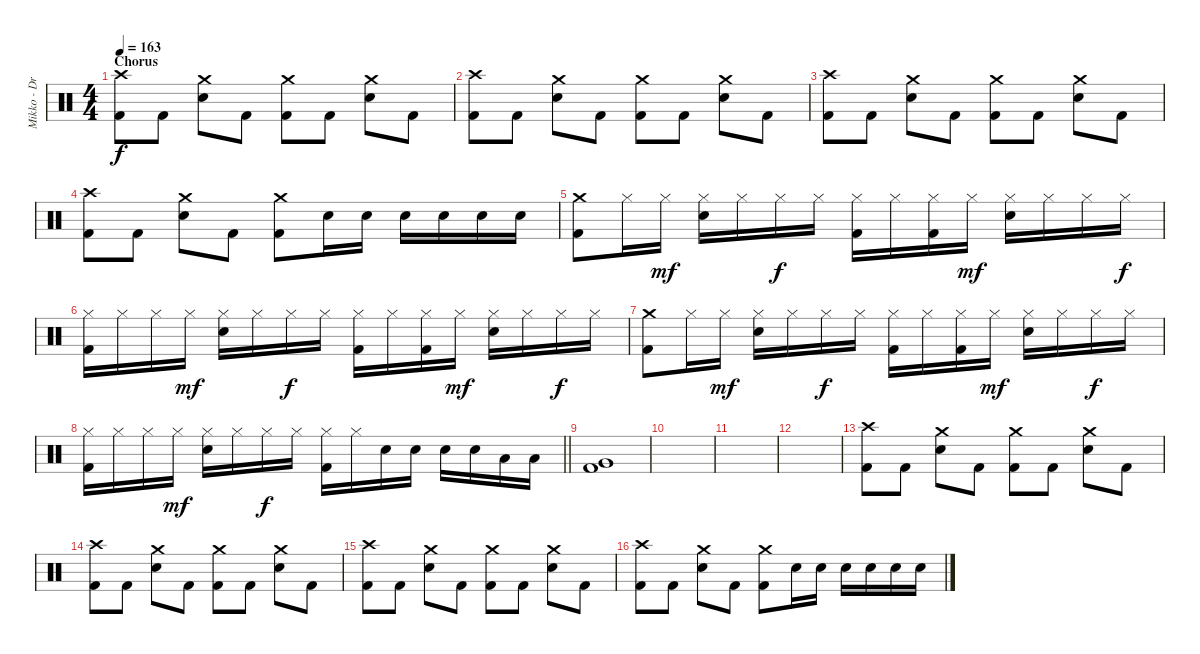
\track ("Mikko - Drums" "Mikko - Dr") {instrument percussion}
\staff {score}
\articulation defaults
\ts (4 4)
\section ("" "Chorus")
\tempo 163
\clef neutral
\ks c
("Crash high (hit)" "Kick (hit) 2").8{dy f} "Kick (hit) 2".8 ("Crash medium (hit)" "Snare (hit) 2").8 "Kick (hit) 2".8 ("Crash medium (hit)" "Kick (hit) 2").8 "Kick (hit) 2".8 ("Crash medium (hit)" "Snare (hit) 2").8 "Kick (hit) 2".8 |
("Crash high (hit)" "Kick (hit) 2").8 "Kick (hit) 2".8 ("Crash medium (hit)" "Snare (hit) 2").8 "Kick (hit) 2".8 ("Crash medium (hit)" "Kick (hit) 2").8 "Kick (hit) 2".8 ("Crash medium (hit)" "Snare (hit) 2").8 "Kick (hit) 2".8 |
("Crash high (hit)" "Kick (hit) 2").8 "Kick (hit) 2".8 ("Crash medium (hit)" "Snare (hit) 2").8 "Kick (hit) 2".8 ("Crash medium (hit)" "Kick (hit) 2").8 "Kick (hit) 2".8 ("Crash medium (hit)" "Snare (hit) 2").8 "Kick (hit) 2".8 |
("Crash high (hit)" "Kick (hit) 2").8 "Kick (hit) 2".8 ("Crash medium (hit)" "Snare (hit) 2").8 "Kick (hit) 2".8 ("Crash medium (hit)" "Kick (hit) 2").8 "Snare (hit) 2".16 "Snare (hit) 2".16 "Snare (hit) 2".16 "Snare (hit) 2".16 "Snare (hit) 2".16 "Snare (hit) 2".16 |
("Crash medium (hit)" "Kick (hit) 2").8 "Hi-Hat (closed)".16 "Hi-Hat (closed)".16{dy mf} ("Hi-Hat (closed)" "Snare (hit) 2").16 "Hi-Hat (closed)".16 "Hi-Hat (closed)".16{dy f} "Hi-Hat (closed)".16 ("Hi-Hat (closed)" "Kick (hit) 2").16 "Hi-Hat (closed)".16 ("Hi-Hat (closed)" "Kick (hit) 2").16 "Hi-Hat (closed)".16{dy mf} ("Hi-Hat (closed)" "Snare (hit) 2").16 "Hi-Hat (closed)".16 "Hi-Hat (closed)".16 "Hi-Hat (closed)".16{dy f} |
("Hi-Hat (closed)" "Kick (hit) 2").16 "Hi-Hat (closed)".16 "Hi-Hat (closed)".16 "Hi-Hat (closed)".16{dy mf} ("Hi-Hat (closed)" "Snare (hit) 2").16 "Hi-Hat (closed)".16 "Hi-Hat (closed)".16{dy f} "Hi-Hat (closed)".16 ("Hi-Hat (closed)" "Kick (hit) 2").16 "Hi-Hat (closed)".16 ("Hi-Hat (closed)" "Kick (hit) 2").16 "Hi-Hat (closed)".16{dy mf} ("Hi-Hat (closed)" "Snare (hit) 2").16 "Hi-Hat (closed)".16 "Hi-Hat (closed)".16{dy f} "Hi-Hat (closed)".16 |
("Crash medium (hit)" "Kick (hit) 2").8 "Hi-Hat (closed)".16 "Hi-Hat (closed)".16{dy mf} ("Hi-Hat (closed)" "Snare (hit) 2").16 "Hi-Hat (closed)".16 "Hi-Hat (closed)".16{dy f} "Hi-Hat (closed)".16 ("Hi-Hat (closed)" "Kick (hit) 2").16 "Hi-Hat (closed)".16 ("Hi-Hat (closed)" "Kick (hit) 2").16 "Hi-Hat (closed)".16{dy mf} ("Hi-Hat (closed)" "Snare (hit) 2").16 "Hi-Hat (closed)".16 "Hi-Hat (closed)".16{dy f} "Hi-Hat (closed)".16 |
\barLineRight lightlight
("Hi-Hat (closed)" "Kick (hit) 2").16 "Hi-Hat (closed)".16 "Hi-Hat (closed)".16 "Hi-Hat (closed)".16{dy mf} ("Hi-Hat (closed)" "Snare (hit) 2").16 "Hi-Hat (closed)".16 "Hi-Hat (closed)".16{dy f} "Hi-Hat (closed)".16 ("Hi-Hat (closed)" "Kick (hit) 2").16 "Hi-Hat (closed)".16 "Snare (hit) 2".16 "Snare (hit) 2".16 "Snare (hit) 2".16 "Snare (hit) 2".16 "Low Tom (hit)".16 "Low Tom (hit)".16 |
("Very Low Tom (hit)" "Kick (hit) 2").1 |
|
|
|
("Crash high (hit)" "Kick (hit) 2").8 "Kick (hit) 2".8 ("Crash medium (hit)" "Snare (hit) 2").8 "Kick (hit) 2".8 ("Crash medium (hit)" "Kick (hit) 2").8 "Kick (hit) 2".8 ("Crash medium (hit)" "Snare (hit) 2").8 "Kick (hit) 2".8 |
("Crash high (hit)" "Kick (hit) 2").8 "Kick (hit) 2".8 ("Crash medium (hit)" "Snare (hit) 2").8 "Kick (hit) 2".8 ("Crash medium (hit)" "Kick (hit) 2").8 "Kick (hit) 2".8 ("Crash medium (hit)" "Snare (hit) 2").8 "Kick (hit) 2".8 |
("Crash high (hit)" "Kick (hit) 2").8 "Kick (hit) 2".8 ("Crash medium (hit)" "Snare (hit) 2").8 "Kick (hit) 2".8 ("Crash medium (hit)" "Kick (hit) 2").8 "Kick (hit) 2".8 ("Crash medium (hit)" "Snare (hit) 2").8 "Kick (hit) 2".8 |
("Crash high (hit)" "Kick (hit) 2").8 "Kick (hit) 2".8 ("Crash medium (hit)" "Snare (hit) 2").8 "Kick (hit) 2".8 ("Crash medium (hit)" "Kick (hit) 2").8 "Snare (hit) 2".16 "Snare (hit) 2".16 "Snare (hit) 2".16 "Snare (hit) 2".16 "Snare (hit) 2".16 "Snare (hit) 2".16
